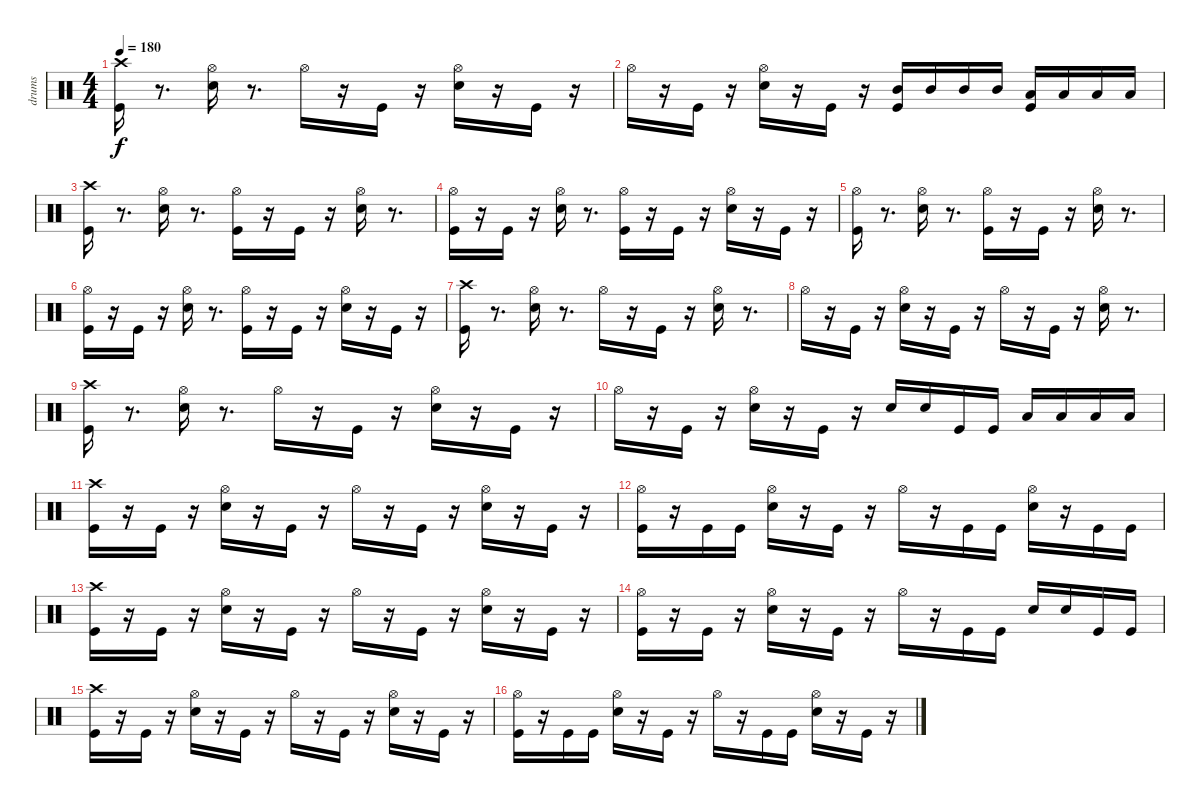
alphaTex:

\track ("drums" "drums") {instrument percussion}
\staff {score}
\articulation defaults
\ts (4 4)
\tempo 180
\clef neutral
\ks c
("Crash high (hit)" "Kick (hit)").16{dy f} r.8{d} ("Hi-Hat (open)" "Snare (hit) 2").16 r.8{d} "Hi-Hat (open)".16 r.16 "Kick (hit)".16 r.16 ("Hi-Hat (open)" "Snare (hit) 2").16 r.16 "Kick (hit)".16 r.16 |
"Hi-Hat (open)".16 r.16 "Kick (hit)".16 r.16 ("Hi-Hat (open)" "Snare (hit) 2").16 r.16 "Kick (hit)".16 r.16 ("Kick (hit)" "Mid Tom (hit)").16 "Mid Tom (hit)".16 "Mid Tom (hit)".16 "Mid Tom (hit)".16 ("Kick (hit)" "Low Tom (hit)").16 "Low Tom (hit)".16 "Low Tom (hit)".16 "Low Tom (hit)".16 |
("Crash high (hit)" "Kick (hit)").16 r.8{d} ("Hi-Hat (open)" "Snare (hit) 2").16 r.8{d} ("Hi-Hat (open)" "Kick (hit)").16 r.16 "Kick (hit)".16 r.16 ("Hi-Hat (open)" "Snare (hit) 2").16 r.8{d} |
("Hi-Hat (open)" "Kick (hit)").16 r.16 "Kick (hit)".16 r.16 ("Hi-Hat (open)" "Snare (hit) 2").16 r.8{d} ("Hi-Hat (open)" "Kick (hit)").16 r.16 "Kick (hit)".16 r.16 ("Hi-Hat (open)" "Snare (hit) 2").16 r.16 "Kick (hit)".16 r.16 |
("Hi-Hat (open)" "Kick (hit)").16 r.8{d} ("Hi-Hat (open)" "Snare (hit) 2").16 r.8{d} ("Hi-Hat (open)" "Kick (hit)").16 r.16 "Kick (hit)".16 r.16 ("Hi-Hat (open)" "Snare (hit) 2").16 r.8{d} |
("Hi-Hat (open)" "Kick (hit)").16 r.16 "Kick (hit)".16 r.16 ("Hi-Hat (open)" "Snare (hit) 2").16 r.8{d} ("Hi-Hat (open)" "Kick (hit)").16 r.16 "Kick (hit)".16 r.16 ("Hi-Hat (open)" "Snare (hit) 2").16 r.16 "Kick (hit)".16 r.16 |
("Crash high (hit)" "Kick (hit)").16 r.8{d} ("Hi-Hat (open)" "Snare (hit) 2").16 r.8{d} "Hi-Hat (open)".16 r.16 "Kick (hit)".16 r.16 ("Hi-Hat (open)" "Snare (hit) 2").16 r.8{d} |
"Hi-Hat (open)".16 r.16 "Kick (hit)".16 r.16 ("Hi-Hat (open)" "Snare (hit) 2").16 r.16 "Kick (hit)".16 r.16 "Hi-Hat (open)".16 r.16 "Kick (hit)".16 r.16 ("Hi-Hat (open)" "Snare (hit) 2").16 r.8{d} |
("Crash high (hit)" "Kick (hit)").16 r.8{d} ("Hi-Hat (open)" "Snare (hit) 2").16 r.8{d} "Hi-Hat (open)".16 r.16 "Kick (hit)".16 r.16 ("Hi-Hat (open)" "Snare (hit) 2").16 r.16 "Kick (hit)".16 r.16 |
"Hi-Hat (open)".16 r.16 "Kick (hit)".16 r.16 ("Hi-Hat (open)" "Snare (hit) 2").16 r.16 "Kick (hit)".16 r.16 "Snare (hit) 2".16 "Snare (hit) 2".16 "Kick (hit)".16 "Kick (hit)".16 "Low Tom (hit)".16 "Low Tom (hit)".16 "Low Tom (hit)".16 "Low Tom (hit)".16 |
("Crash high (hit)" "Kick (hit)").16 r.16 "Kick (hit)".16 r.16 ("Hi-Hat (open)" "Snare (hit) 2").16 r.16 "Kick (hit)".16 r.16 "Hi-Hat (open)".16 r.16 "Kick (hit)".16 r.16 ("Hi-Hat (open)" "Snare (hit) 2").16 r.16 "Kick (hit)".16 r.16 |
("Hi-Hat (open)" "Kick (hit)").16 r.16 "Kick (hit)".16 "Kick (hit)".16 ("Hi-Hat (open)" "Snare (hit) 2").16 r.16 "Kick (hit)".16 r.16 "Hi-Hat (open)".16 r.16 "Kick (hit)".16 "Kick (hit)".16 ("Hi-Hat (open)" "Snare (hit) 2").16 r.16 "Kick (hit)".16 "Kick (hit)".16 |
("Crash high (hit)" "Kick (hit)").16 r.16 "Kick (hit)".16 r.16 ("Hi-Hat (open)" "Snare (hit) 2").16 r.16 "Kick (hit)".16 r.16 "Hi-Hat (open)".16 r.16 "Kick (hit)".16 r.16 ("Hi-Hat (open)" "Snare (hit) 2").16 r.16 "Kick (hit)".16 r.16 |
("Hi-Hat (open)" "Kick (hit)").16 r.16 "Kick (hit)".16 r.16 ("Hi-Hat (open)" "Snare (hit) 2").16 r.16 "Kick (hit)".16 r.16 "Hi-Hat (open)".16 r.16 "Kick (hit)".16 "Kick (hit)".16 "Snare (hit) 2".16 "Snare (hit) 2".16 "Kick (hit)".16 "Kick (hit)".16 |
("Crash high (hit)" "Kick (hit)").16 r.16 "Kick (hit)".16 r.16 ("Hi-Hat (open)" "Snare (hit) 2").16 r.16 "Kick (hit)".16 r.16 "Hi-Hat (open)".16 r.16 "Kick (hit)".16 r.16 ("Hi-Hat (open)" "Snare (hit) 2").16 r.16 "Kick (hit)".16 r.16 |
("Hi-Hat (open)" "Kick (hit)").16 r.16 "Kick (hit)".16 "Kick (hit)".16 ("Hi-Hat (open)" "Snare (hit) 2").16 r.16 "Kick (hit)".16 r.16 "Hi-Hat (open)".16 r.16 "Kick (hit)".16 "Kick (hit)".16 ("Hi-Hat (open)" "Snare (hit) 2").16 r.16 "Kick (hit)".16 r.16
